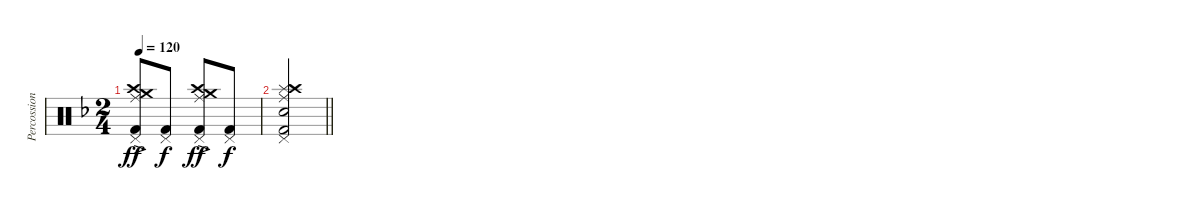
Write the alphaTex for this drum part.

\track ("Percossion" "Percossion") {instrument percussion}
\staff {score}
\articulation defaults
\ts (2 4)
\tempo 120
\clef neutral
\ks f
("Pedal Hi-Hat (hit)"{ac} "Crash medium (hit)"{ac} "Ride (middle)"{ac} "Crash high (hit)"{ac} "Kick (hit) 2"{ac}).8{dy ff} ("Pedal Hi-Hat (hit)" "Kick (hit) 2").8{dy f} ("Pedal Hi-Hat (hit)"{ac} "Crash medium (hit)"{ac} "Ride (middle)"{ac} "Crash high (hit)"{ac} "Kick (hit) 2"{ac}).8{dy ff} ("Pedal Hi-Hat (hit)" "Kick (hit) 2").8{dy f} |
\barLineRight lightlight
("Pedal Hi-Hat (hit)" "Splash (hit)" "Ride (middle)" "Crash high (hit)" "Snare (hit) 2" "Kick (hit) 2").2
